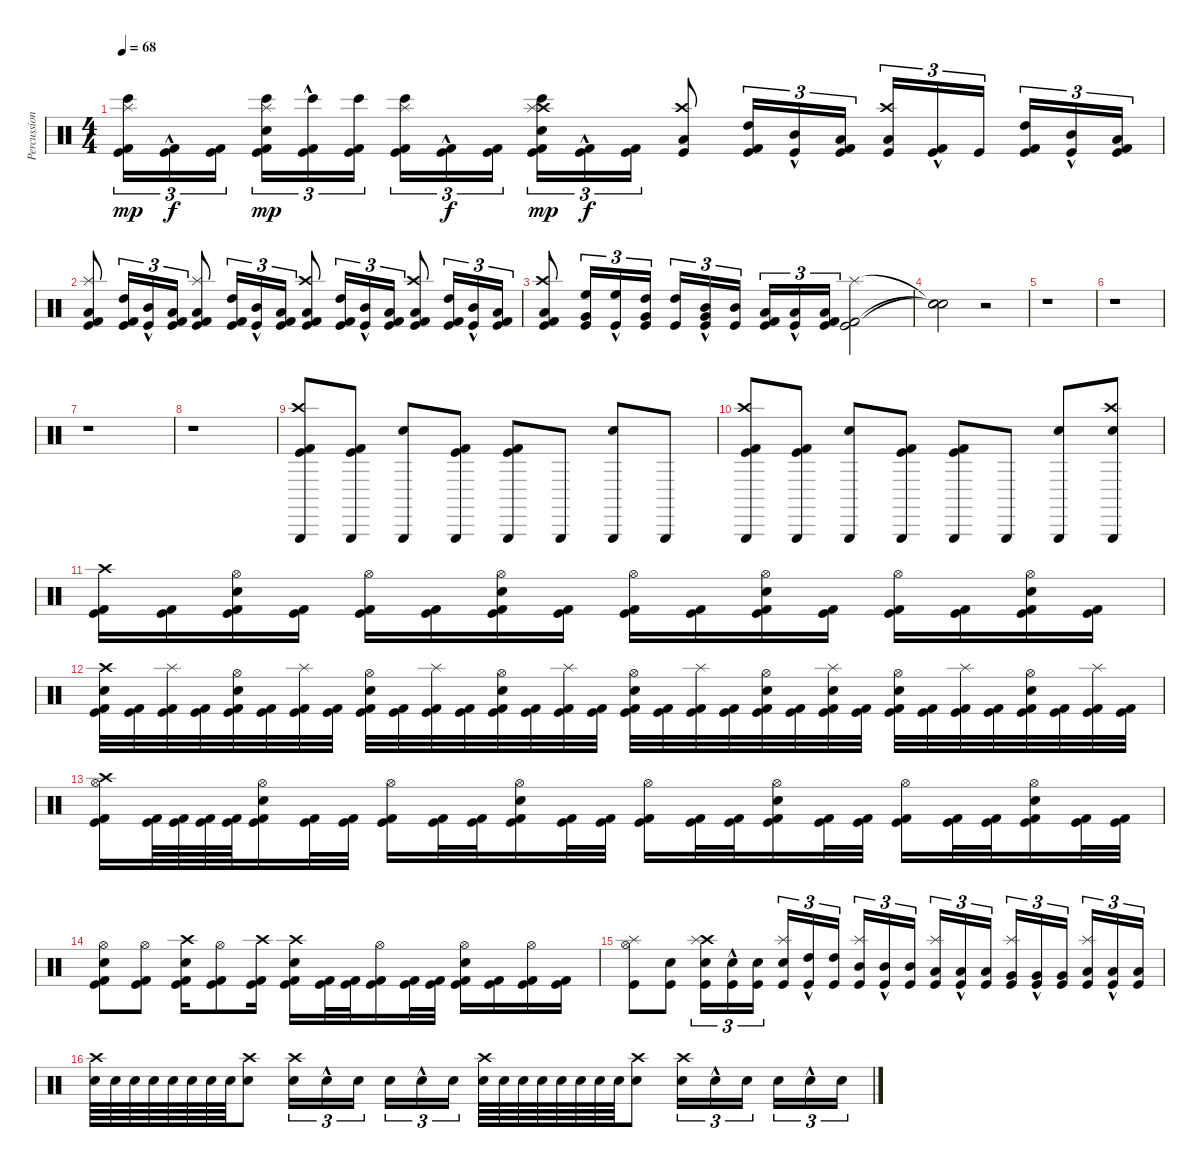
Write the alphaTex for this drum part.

\track ("Percussion" "Percussion") {instrument percussion}
\staff {score}
\articulation defaults
\ts (4 4)
\tempo 68
\clef neutral
\ks c
("Bongo High (hit)" "Kick (hit)" "Kick (hit) 2" "Splash (hit)").16{tu (3 2) dy mp} ("Kick (hit)"{hac} "Kick (hit) 2"{hac}).16{tu (3 2) dy f} ("Kick (hit)" "Kick (hit) 2").16{tu (3 2)} ("Bongo High (hit)" "Kick (hit)" "Kick (hit) 2" "Snare (hit) 2" "Splash (hit)").16{tu (3 2) dy mp} ("Bongo High (hit)"{hac} "Kick (hit)"{hac} "Kick (hit) 2"{hac}).16{tu (3 2)} ("Bongo High (hit)" "Kick (hit)" "Kick (hit) 2").16{tu (3 2)} ("Bongo High (hit)" "Kick (hit)" "Kick (hit) 2" "Splash (hit)").16{tu (3 2)} ("Kick (hit)"{hac} "Kick (hit) 2"{hac}).16{tu (3 2) dy f} ("Kick (hit)" "Kick (hit) 2").16{tu (3 2)} ("Bongo High (hit)" "Kick (hit)" "Kick (hit) 2" "Snare (hit) 2" "Crash high (hit)" "Splash (hit)").16{tu (3 2) dy mp} ("Kick (hit)"{hac} "Kick (hit) 2"{hac}).16{tu (3 2) dy f} ("Kick (hit)" "Kick (hit) 2").16{tu (3 2)} ("Kick (hit)" "Low Floor Tom (hit)" "Crash high (hit)").8 ("Kick (hit)" "Kick (hit) 2" "High Tom (hit)").16{tu (3 2)} ("Kick (hit)"{hac} "Mid Tom (hit)"{hac}).16{tu (3 2)} ("Kick (hit)" "Kick (hit) 2" "Low Tom (hit)").16{tu (3 2)} ("Kick (hit)" "Low Floor Tom (hit)" "Crash high (hit)").16{tu (3 2)} ("Kick (hit)"{hac} "Kick (hit) 2"{hac}).16{tu (3 2)} "Kick (hit)".16{tu (3 2)} ("Kick (hit)" "Kick (hit) 2" "High Tom (hit)").16{tu (3 2)} ("Kick (hit)"{hac} "Mid Tom (hit)"{hac}).16{tu (3 2)} ("Kick (hit)" "Kick (hit) 2" "Low Tom (hit)").16{tu (3 2)} |
("Kick (hit)" "Kick (hit) 2" "Low Floor Tom (hit)" "Splash (hit)").8 ("Kick (hit)" "Kick (hit) 2" "High Tom (hit)").16{tu (3 2)} ("Kick (hit)"{hac} "Mid Tom (hit)"{hac}).16{tu (3 2)} ("Kick (hit)" "Kick (hit) 2" "Low Tom (hit)").16{tu (3 2)} ("Kick (hit)" "Kick (hit) 2" "Low Floor Tom (hit)" "Splash (hit)").8 ("Kick (hit)" "Kick (hit) 2" "High Tom (hit)").16{tu (3 2)} ("Kick (hit)"{hac} "Mid Tom (hit)"{hac}).16{tu (3 2)} ("Kick (hit)" "Kick (hit) 2" "Low Tom (hit)").16{tu (3 2)} ("Kick (hit)" "Kick (hit) 2" "Low Floor Tom (hit)" "Crash high (hit)").8 ("Kick (hit)" "Kick (hit) 2" "High Tom (hit)").16{tu (3 2)} ("Kick (hit)"{hac} "Mid Tom (hit)"{hac}).16{tu (3 2)} ("Kick (hit)" "Kick (hit) 2" "Low Tom (hit)").16{tu (3 2)} ("Kick (hit)" "Kick (hit) 2" "Low Floor Tom (hit)" "Crash high (hit)").8 ("Kick (hit)" "Kick (hit) 2" "High Tom (hit)").16{tu (3 2)} ("Kick (hit)"{hac} "Mid Tom (hit)"{hac}).16{tu (3 2)} ("Kick (hit)" "Kick (hit) 2" "Low Tom (hit)").16{tu (3 2)} |
("Kick (hit)" "Kick (hit) 2" "Low Floor Tom (hit)" "Crash high (hit)").8 ("Kick (hit)" "Very Low Tom (hit)" "High Floor Tom (hit)").16{tu (3 2)} ("Kick (hit)"{hac} "High Floor Tom (hit)"{hac}).16{tu (3 2)} ("Kick (hit)" "Very Low Tom (hit)" "High Tom (hit)").16{tu (3 2)} ("Kick (hit)" "High Tom (hit)").16{tu (3 2)} ("Kick (hit)"{hac} "Very Low Tom (hit)"{hac} "Mid Tom (hit)"{hac}).16{tu (3 2)} ("Kick (hit)" "Mid Tom (hit)").16{tu (3 2)} ("Kick (hit)" "Kick (hit) 2" "Low Tom (hit)").16{tu (3 2)} ("Kick (hit)"{hac} "Low Tom (hit)"{hac}).16{tu (3 2)} ("Kick (hit)" "Kick (hit) 2" "Low Floor Tom (hit)").16{tu (3 2)} ("Kick (hit)" "Kick (hit) 2" "Splash (hit)").2 |
\section ("" "")
("Snare (hit)"{t} "Snare (hit)"{t} "Snare (hit)"{t}).2 r.2 |
r.1 |
r.1 |
r.1 |
r.1 |
\section ("" "")
("Kick (hit)" "Kick (hit) 2" "Crash high (hit)" "Triangle (hit)").8 ("Kick (hit)" "Kick (hit) 2" "Triangle (hit)").8 ("Snare (hit) 2" "Triangle (hit)").8 ("Kick (hit)" "Kick (hit) 2" "Triangle (hit)").8 ("Kick (hit)" "Kick (hit) 2" "Triangle (hit)").8 "Triangle (hit)".8 ("Snare (hit) 2" "Triangle (hit)").8 "Triangle (hit)".8 |
("Kick (hit)" "Kick (hit) 2" "Crash high (hit)" "Triangle (hit)").8 ("Kick (hit)" "Kick (hit) 2" "Triangle (hit)").8 ("Snare (hit) 2" "Triangle (hit)").8 ("Kick (hit)" "Kick (hit) 2" "Triangle (hit)").8 ("Kick (hit)" "Kick (hit) 2" "Triangle (hit)").8 "Triangle (hit)".8 ("Snare (hit) 2" "Triangle (hit)").8 ("Snare (hit) 2" "Crash high (hit)" "Triangle (hit)").8 |
("Kick (hit)" "Kick (hit) 2" "Crash high (hit)").16 ("Kick (hit)" "Kick (hit) 2").16 ("Kick (hit)" "Kick (hit) 2" "Snare (hit) 2" "Hi-Hat (open)").16 ("Kick (hit)" "Kick (hit) 2").16 ("Kick (hit)" "Kick (hit) 2" "Hi-Hat (open)").16 ("Kick (hit)" "Kick (hit) 2").16 ("Kick (hit)" "Kick (hit) 2" "Snare (hit) 2" "Hi-Hat (open)").16 ("Kick (hit)" "Kick (hit) 2").16 ("Kick (hit)" "Kick (hit) 2" "Hi-Hat (open)").16 ("Kick (hit)" "Kick (hit) 2").16 ("Kick (hit)" "Kick (hit) 2" "Snare (hit) 2" "Hi-Hat (open)").16 ("Kick (hit)" "Kick (hit) 2").16 ("Kick (hit)" "Kick (hit) 2" "Hi-Hat (open)").16 ("Kick (hit)" "Kick (hit) 2").16 ("Kick (hit)" "Kick (hit) 2" "Snare (hit) 2" "Hi-Hat (open)").16 ("Kick (hit)" "Kick (hit) 2").16 |
("Kick (hit)" "Kick (hit) 2" "Snare (hit) 2" "Crash high (hit)").32 ("Kick (hit)" "Kick (hit) 2").32 ("Kick (hit)" "Kick (hit) 2" "Splash (hit)").32 ("Kick (hit)" "Kick (hit) 2").32 ("Kick (hit)" "Kick (hit) 2" "Snare (hit) 2" "Hi-Hat (open)").32 ("Kick (hit)" "Kick (hit) 2").32 ("Kick (hit)" "Kick (hit) 2" "Splash (hit)").32 ("Kick (hit)" "Kick (hit) 2").32 ("Kick (hit)" "Kick (hit) 2" "Snare (hit) 2" "Hi-Hat (open)").32 ("Kick (hit)" "Kick (hit) 2").32 ("Kick (hit)" "Kick (hit) 2" "Splash (hit)").32 ("Kick (hit)" "Kick (hit) 2").32 ("Kick (hit)" "Kick (hit) 2" "Snare (hit) 2" "Hi-Hat (open)").32 ("Kick (hit)" "Kick (hit) 2").32 ("Kick (hit)" "Kick (hit) 2" "Splash (hit)").32 ("Kick (hit)" "Kick (hit) 2").32 ("Kick (hit)" "Kick (hit) 2" "Snare (hit) 2" "Hi-Hat (open)").32 ("Kick (hit)" "Kick (hit) 2").32 ("Kick (hit)" "Kick (hit) 2" "Splash (hit)").32 ("Kick (hit)" "Kick (hit) 2").32 ("Kick (hit)" "Kick (hit) 2" "Snare (hit) 2" "Hi-Hat (open)").32 ("Kick (hit)" "Kick (hit) 2").32 ("Kick (hit)" "Kick (hit) 2" "Snare (hit) 2" "Splash (hit)").32 ("Kick (hit)" "Kick (hit) 2").32 ("Kick (hit)" "Kick (hit) 2" "Snare (hit) 2" "Hi-Hat (open)").32 ("Kick (hit)" "Kick (hit) 2").32 ("Kick (hit)" "Kick (hit) 2" "Splash (hit)").32 ("Kick (hit)" "Kick (hit) 2").32 ("Kick (hit)" "Kick (hit) 2" "Snare (hit) 2" "Hi-Hat (open)").32 ("Kick (hit)" "Kick (hit) 2").32 ("Kick (hit)" "Kick (hit) 2" "Splash (hit)").32 ("Kick (hit)" "Kick (hit) 2").32 |
("Kick (hit)" "Kick (hit) 2" "Hi-Hat (open)" "Crash high (hit)").16 ("Kick (hit)" "Kick (hit) 2").64 ("Kick (hit)" "Kick (hit) 2").64 ("Kick (hit)" "Kick (hit) 2").64 ("Kick (hit)" "Kick (hit) 2").64 ("Kick (hit)" "Kick (hit) 2" "Snare (hit) 2" "Hi-Hat (open)").16 ("Kick (hit)" "Kick (hit) 2").32 ("Kick (hit)" "Kick (hit) 2").32 ("Kick (hit)" "Kick (hit) 2" "Hi-Hat (open)").16 ("Kick (hit)" "Kick (hit) 2").32 ("Kick (hit)" "Kick (hit) 2").32 ("Kick (hit)" "Kick (hit) 2" "Snare (hit) 2" "Hi-Hat (open)").16 ("Kick (hit)" "Kick (hit) 2").32 ("Kick (hit)" "Kick (hit) 2").32 ("Kick (hit)" "Kick (hit) 2" "Hi-Hat (open)").16 ("Kick (hit)" "Kick (hit) 2").32 ("Kick (hit)" "Kick (hit) 2").32 ("Kick (hit)" "Kick (hit) 2" "Snare (hit) 2" "Hi-Hat (open)").16 ("Kick (hit)" "Kick (hit) 2").32 ("Kick (hit)" "Kick (hit) 2").32 ("Kick (hit)" "Kick (hit) 2" "Hi-Hat (open)").16 ("Kick (hit)" "Kick (hit) 2").32 ("Kick (hit)" "Kick (hit) 2").32 ("Kick (hit)" "Kick (hit) 2" "Snare (hit) 2" "Hi-Hat (open)").16 ("Kick (hit)" "Kick (hit) 2").32 ("Kick (hit)" "Kick (hit) 2").32 |
("Kick (hit)" "Kick (hit) 2" "Snare (hit) 2" "Hi-Hat (open)").8 ("Kick (hit)" "Kick (hit) 2" "Hi-Hat (open)").8 ("Kick (hit)" "Kick (hit) 2" "Snare (hit) 2" "Crash high (hit)").16 ("Kick (hit)" "Kick (hit) 2" "Hi-Hat (open)").8 ("Kick (hit)" "Kick (hit) 2" "Crash high (hit)").16 ("Kick (hit)" "Kick (hit) 2" "Snare (hit) 2" "Crash high (hit)").16 ("Kick (hit)" "Kick (hit) 2").32 ("Kick (hit)" "Kick (hit) 2").32 ("Kick (hit)" "Kick (hit) 2" "Hi-Hat (open)").16 ("Kick (hit)" "Kick (hit) 2").32 ("Kick (hit)" "Kick (hit) 2").32 ("Kick (hit)" "Kick (hit) 2" "Snare (hit) 2" "Hi-Hat (open)").16 ("Kick (hit)" "Kick (hit) 2").16 ("Kick (hit)" "Kick (hit) 2" "Hi-Hat (open)").16 ("Kick (hit)" "Kick (hit) 2").16 |
("Kick (hit)" "Hi-Hat (open)" "Splash (hit)").8 ("Kick (hit)" "Snare (hit) 2").8 ("Kick (hit)" "Snare (hit) 2" "Crash high (hit)" "Splash (hit)").16{tu (3 2)} ("Kick (hit)"{hac} "Snare (hit) 2"{hac}).16{tu (3 2)} ("Kick (hit)" "Snare (hit) 2").16{tu (3 2)} ("Kick (hit)" "Snare (hit) 2" "Splash (hit)").16{tu (3 2)} ("Kick (hit)"{hac} "High Tom (hit)"{hac}).16{tu (3 2)} ("Kick (hit)" "High Tom (hit)").16{tu (3 2)} ("Kick (hit)" "Mid Tom (hit)" "Splash (hit)").16{tu (3 2)} ("Kick (hit)"{hac} "Mid Tom (hit)"{hac}).16{tu (3 2)} ("Kick (hit)" "Mid Tom (hit)").16{tu (3 2)} ("Kick (hit)" "Low Tom (hit)" "Splash (hit)").16{tu (3 2)} ("Kick (hit)"{hac} "Low Tom (hit)"{hac}).16{tu (3 2)} ("Kick (hit)" "Low Tom (hit)").16{tu (3 2)} ("Kick (hit)" "Very Low Tom (hit)" "Splash (hit)").16{tu (3 2)} ("Kick (hit)"{hac} "Very Low Tom (hit)"{hac}).16{tu (3 2)} ("Kick (hit)" "Very Low Tom (hit)").16{tu (3 2)} ("Kick (hit)" "Low Floor Tom (hit)" "Splash (hit)").16{tu (3 2)} ("Kick (hit)"{hac} "Low Floor Tom (hit)"{hac}).16{tu (3 2)} ("Kick (hit)" "Low Floor Tom (hit)").16{tu (3 2)} |
("Snare (hit) 2" "Crash high (hit)").64 "Snare (hit) 2".64 "Snare (hit) 2".64 "Snare (hit) 2".64 "Snare (hit) 2".64 "Snare (hit) 2".64 "Snare (hit) 2".64 "Snare (hit) 2".64 ("Snare (hit) 2" "Crash high (hit)").8 ("Snare (hit) 2" "Crash high (hit)").16{tu (3 2)} "Snare (hit) 2"{hac}.16{tu (3 2)} "Snare (hit) 2".16{tu (3 2)} "Snare (hit) 2".16{tu (3 2)} "Snare (hit) 2"{hac}.16{tu (3 2)} "Snare (hit) 2".16{tu (3 2)} ("Snare (hit) 2" "Crash high (hit)").64 "Snare (hit) 2".64 "Snare (hit) 2".64 "Snare (hit) 2".64 "Snare (hit) 2".64 "Snare (hit) 2".64 "Snare (hit) 2".64 "Snare (hit) 2".64 ("Snare (hit) 2" "Crash high (hit)").8 ("Snare (hit) 2" "Crash high (hit)").16{tu (3 2)} "Snare (hit) 2"{hac}.16{tu (3 2)} "Snare (hit) 2".16{tu (3 2)} "Snare (hit) 2".16{tu (3 2)} "Snare (hit) 2"{hac}.16{tu (3 2)} "Snare (hit) 2".16{tu (3 2)}
